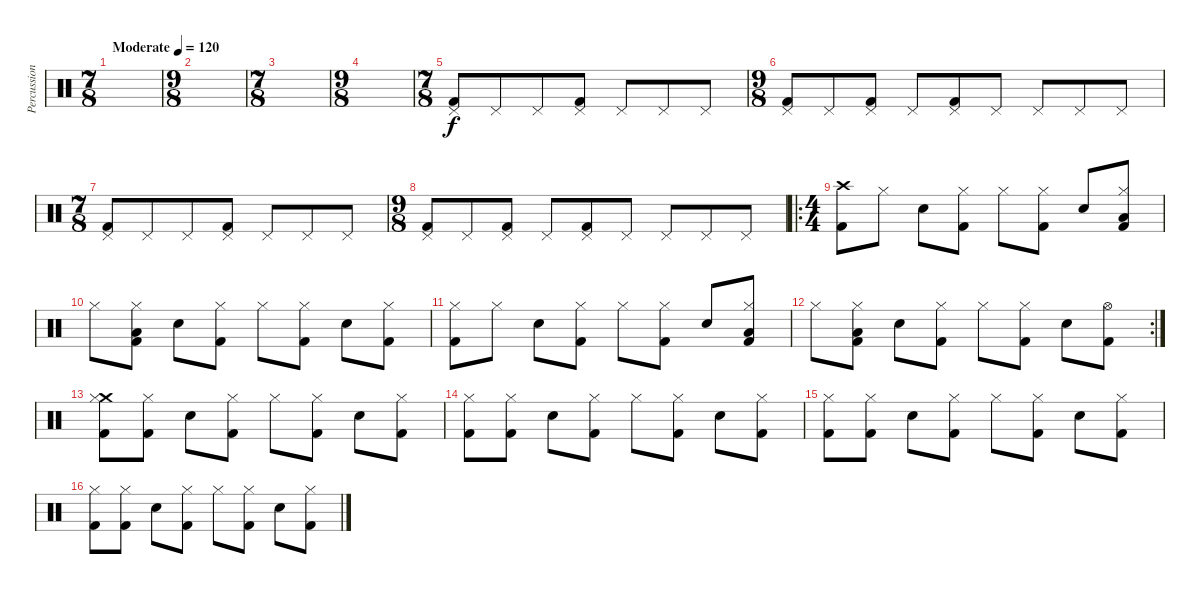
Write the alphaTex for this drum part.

\track ("Percussion" "Percussion") {instrument percussion}
\staff {score}
\articulation defaults
\ts (7 8)
\tempo (120 "Moderate")
\clef neutral
\ks c
|
\ts (9 8)
|
\ts (7 8)
|
\ts (9 8)
|
\ts (7 8)
("Pedal Hi-Hat (hit)" "Kick (hit) 2").8 "Pedal Hi-Hat (hit)".8 "Pedal Hi-Hat (hit)".8 ("Pedal Hi-Hat (hit)" "Kick (hit) 2").8 "Pedal Hi-Hat (hit)".8 "Pedal Hi-Hat (hit)".8 "Pedal Hi-Hat (hit)".8 |
\ts (9 8)
("Pedal Hi-Hat (hit)" "Kick (hit) 2").8 "Pedal Hi-Hat (hit)".8 ("Pedal Hi-Hat (hit)" "Kick (hit) 2").8 "Pedal Hi-Hat (hit)".8 ("Pedal Hi-Hat (hit)" "Kick (hit) 2").8 "Pedal Hi-Hat (hit)".8 "Pedal Hi-Hat (hit)".8 "Pedal Hi-Hat (hit)".8 "Pedal Hi-Hat (hit)".8 |
\ts (7 8)
("Pedal Hi-Hat (hit)" "Kick (hit) 2").8 "Pedal Hi-Hat (hit)".8 "Pedal Hi-Hat (hit)".8 ("Pedal Hi-Hat (hit)" "Kick (hit) 2").8 "Pedal Hi-Hat (hit)".8 "Pedal Hi-Hat (hit)".8 "Pedal Hi-Hat (hit)".8 |
\ts (9 8)
("Pedal Hi-Hat (hit)" "Kick (hit) 2").8 "Pedal Hi-Hat (hit)".8 ("Pedal Hi-Hat (hit)" "Kick (hit) 2").8 "Pedal Hi-Hat (hit)".8 ("Pedal Hi-Hat (hit)" "Kick (hit) 2").8 "Pedal Hi-Hat (hit)".8 "Pedal Hi-Hat (hit)".8 "Pedal Hi-Hat (hit)".8 "Pedal Hi-Hat (hit)".8 |
\ro
\ts (4 4)
("Crash high (hit)" "Kick (hit) 2").8 "Hi-Hat (closed)".8 "Electric Snare (hit)".8 ("Hi-Hat (closed)" "Kick (hit) 2").8 "Hi-Hat (closed)".8 ("Hi-Hat (closed)" "Kick (hit) 2").8 "Electric Snare (hit)".8 ("Low Floor Tom (hit)" "Hi-Hat (closed)" "Kick (hit) 2").8 |
"Hi-Hat (closed)".8 ("Low Floor Tom (hit)" "Hi-Hat (closed)" "Kick (hit) 2").8 "Electric Snare (hit)".8 ("Hi-Hat (closed)" "Kick (hit) 2").8 "Hi-Hat (closed)".8 ("Hi-Hat (closed)" "Kick (hit) 2").8 "Electric Snare (hit)".8 ("Hi-Hat (closed)" "Kick (hit) 2").8 |
("Hi-Hat (closed)" "Kick (hit) 2").8 "Hi-Hat (closed)".8 "Electric Snare (hit)".8 ("Hi-Hat (closed)" "Kick (hit) 2").8 "Hi-Hat (closed)".8 ("Hi-Hat (closed)" "Kick (hit) 2").8 "Electric Snare (hit)".8 ("Low Floor Tom (hit)" "Hi-Hat (closed)" "Kick (hit) 2").8 |
\rc 2 "Hi-Hat (closed)".8
("Low Floor Tom (hit)" "Hi-Hat (closed)" "Kick (hit) 2").8 "Electric Snare (hit)".8 ("Hi-Hat (closed)" "Kick (hit) 2").8 "Hi-Hat (closed)".8 ("Hi-Hat (closed)" "Kick (hit) 2").8 "Electric Snare (hit)".8 ("Hi-Hat (open)" "Kick (hit) 2").8 |
("Crash medium (hit)" "Hi-Hat (closed)" "Kick (hit) 2").8 ("Hi-Hat (closed)" "Kick (hit) 2").8 "Electric Snare (hit)".8 ("Hi-Hat (closed)" "Kick (hit) 2").8 "Hi-Hat (closed)".8 ("Hi-Hat (closed)" "Kick (hit) 2").8 "Electric Snare (hit)".8 ("Hi-Hat (closed)" "Kick (hit) 2").8 |
("Hi-Hat (closed)" "Kick (hit) 2").8 ("Hi-Hat (closed)" "Kick (hit) 2").8 "Electric Snare (hit)".8 ("Hi-Hat (closed)" "Kick (hit) 2").8 "Hi-Hat (closed)".8 ("Hi-Hat (closed)" "Kick (hit) 2").8 "Electric Snare (hit)".8 ("Hi-Hat (closed)" "Kick (hit) 2").8 |
("Hi-Hat (closed)" "Kick (hit) 2").8 ("Hi-Hat (closed)" "Kick (hit) 2").8 "Electric Snare (hit)".8 ("Hi-Hat (closed)" "Kick (hit) 2").8 "Hi-Hat (closed)".8 ("Hi-Hat (closed)" "Kick (hit) 2").8 "Electric Snare (hit)".8 ("Hi-Hat (closed)" "Kick (hit) 2").8 |
("Hi-Hat (closed)" "Kick (hit) 2").8 ("Hi-Hat (closed)" "Kick (hit) 2").8 "Electric Snare (hit)".8 ("Hi-Hat (closed)" "Kick (hit) 2").8 "Hi-Hat (closed)".8 ("Hi-Hat (closed)" "Kick (hit) 2").8 "Electric Snare (hit)".8 ("Hi-Hat (closed)" "Kick (hit) 2").8
